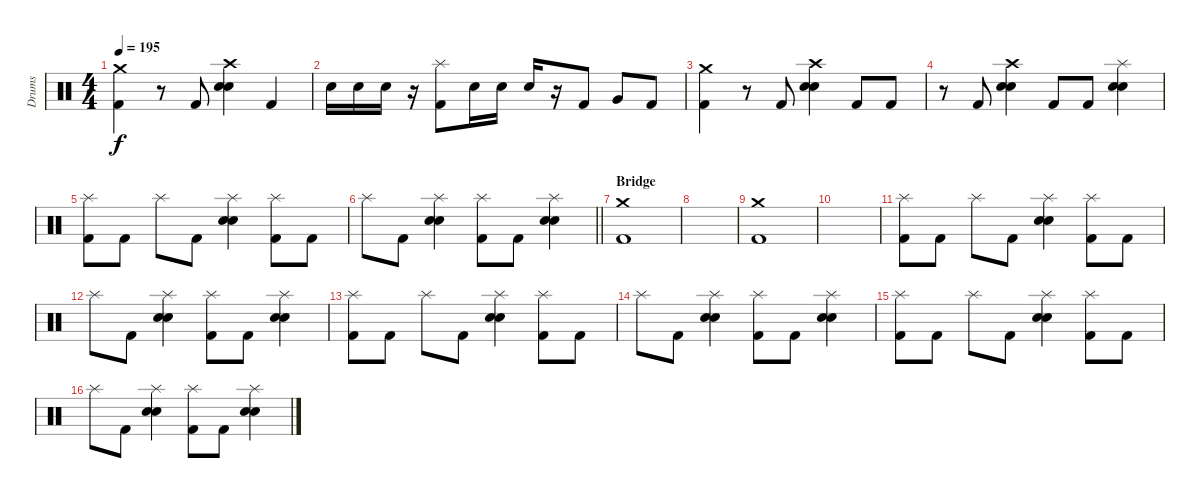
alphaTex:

\track ("Drums" "Drums") {instrument percussion}
\staff {score}
\articulation defaults
\ts (4 4)
\tempo 195
\clef neutral
\ks c
("Crash medium (hit)" "Kick (hit) 2").4{dy f} r.8 "Kick (hit) 2".8 ("Crash high (hit)" "Electric Snare (hit)" "Snare (hit) 2").4 "Kick (hit) 2".4 |
"Electric Snare (hit)".16 "Electric Snare (hit)".16 "Electric Snare (hit)".16 r.16 ("Splash (hit)" "Kick (hit) 2").8 "Electric Snare (hit)".16 "Electric Snare (hit)".16 "Electric Snare (hit)".16 r.16 "Kick (hit) 2".8 "Very Low Tom (hit)".8 "Kick (hit) 2".8 |
("Crash medium (hit)" "Kick (hit) 2").4 r.8 "Kick (hit) 2".8 ("Crash high (hit)" "Electric Snare (hit)" "Snare (hit) 2").4 "Kick (hit) 2".8 "Kick (hit) 2".8 |
r.8 "Kick (hit) 2".8 ("Crash high (hit)" "Electric Snare (hit)" "Snare (hit) 2").4 "Kick (hit) 2".8 "Kick (hit) 2".8 ("Splash (hit)" "Electric Snare (hit)" "Snare (hit) 2").4 |
("Splash (hit)" "Kick (hit) 2").8 "Kick (hit) 2".8 "Splash (hit)".8 "Kick (hit) 2".8 ("Splash (hit)" "Electric Snare (hit)" "Snare (hit) 2").4 ("Splash (hit)" "Kick (hit) 2").8 "Kick (hit) 2".8 |
\barLineRight lightlight "Splash (hit)".8 "Kick (hit) 2".8
("Splash (hit)" "Electric Snare (hit)" "Snare (hit) 2").4 ("Splash (hit)" "Kick (hit) 2").8 "Kick (hit) 2".8 ("Splash (hit)" "Electric Snare (hit)" "Snare (hit) 2").4 |
\section ("" "Bridge")
("Crash medium (hit)" "Kick (hit) 2").1 |
|
("Crash medium (hit)" "Kick (hit) 2").1 |
|
("Splash (hit)" "Kick (hit) 2").8 "Kick (hit) 2".8 "Splash (hit)".8 "Kick (hit) 2".8 ("Splash (hit)" "Electric Snare (hit)" "Snare (hit) 2").4 ("Splash (hit)" "Kick (hit) 2").8 "Kick (hit) 2".8 |
"Splash (hit)".8 "Kick (hit) 2".8 ("Splash (hit)" "Electric Snare (hit)" "Snare (hit) 2").4 ("Splash (hit)" "Kick (hit) 2").8 "Kick (hit) 2".8 ("Splash (hit)" "Electric Snare (hit)" "Snare (hit) 2").4 |
("Splash (hit)" "Kick (hit) 2").8 "Kick (hit) 2".8 "Splash (hit)".8 "Kick (hit) 2".8 ("Splash (hit)" "Electric Snare (hit)" "Snare (hit) 2").4 ("Splash (hit)" "Kick (hit) 2").8 "Kick (hit) 2".8 |
"Splash (hit)".8 "Kick (hit) 2".8 ("Splash (hit)" "Electric Snare (hit)" "Snare (hit) 2").4 ("Splash (hit)" "Kick (hit) 2").8 "Kick (hit) 2".8 ("Splash (hit)" "Electric Snare (hit)" "Snare (hit) 2").4 |
("Splash (hit)" "Kick (hit) 2").8 "Kick (hit) 2".8 "Splash (hit)".8 "Kick (hit) 2".8 ("Splash (hit)" "Electric Snare (hit)" "Snare (hit) 2").4 ("Splash (hit)" "Kick (hit) 2").8 "Kick (hit) 2".8 |
"Splash (hit)".8 "Kick (hit) 2".8 ("Splash (hit)" "Electric Snare (hit)" "Snare (hit) 2").4 ("Splash (hit)" "Kick (hit) 2").8 "Kick (hit) 2".8 ("Splash (hit)" "Electric Snare (hit)" "Snare (hit) 2").4
